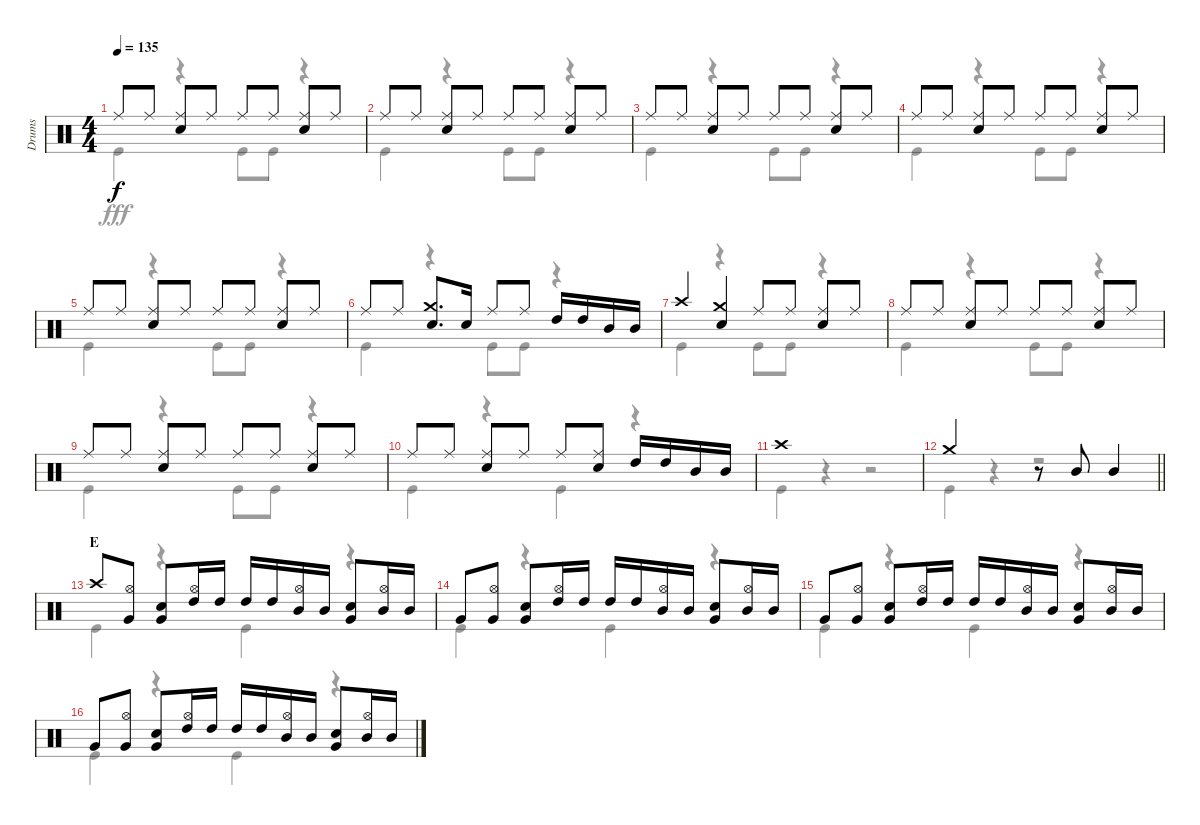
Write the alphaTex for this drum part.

\track ("Drums" "Drums") {instrument percussion}
\staff {score}
\articulation defaults
\voice
\ts (4 4)
\tempo 135
\clef neutral
\ks c "Ride (middle)".8{dy f} "Ride (middle)".8
("Ride (middle)" "Snare (hit) 2").8 "Ride (middle)".8 "Ride (middle)".8 "Ride (middle)".8 ("Ride (middle)" "Snare (hit) 2").8 "Ride (middle)".8 |
"Ride (middle)".8 "Ride (middle)".8 ("Ride (middle)" "Snare (hit) 2").8 "Ride (middle)".8 "Ride (middle)".8 "Ride (middle)".8 ("Ride (middle)" "Snare (hit) 2").8 "Ride (middle)".8 |
"Ride (middle)".8 "Ride (middle)".8 ("Ride (middle)" "Snare (hit) 2").8 "Ride (middle)".8 "Ride (middle)".8 "Ride (middle)".8 ("Ride (middle)" "Snare (hit) 2").8 "Ride (middle)".8 |
"Ride (middle)".8 "Ride (middle)".8 ("Ride (middle)" "Snare (hit) 2").8 "Ride (middle)".8 "Ride (middle)".8 "Ride (middle)".8 ("Ride (middle)" "Snare (hit) 2").8 "Ride (middle)".8 |
"Ride (middle)".8 "Ride (middle)".8 ("Ride (middle)" "Snare (hit) 2").8 "Ride (middle)".8 "Ride (middle)".8 "Ride (middle)".8 ("Ride (middle)" "Snare (hit) 2").8 "Ride (middle)".8 |
"Ride (middle)".8 "Ride (middle)".8 ("Crash medium (hit)" "Snare (hit) 2").8{d} "Snare (hit) 2".16 "Ride (middle)".8 "Ride (middle)".8 "High Tom (hit)".16 "High Tom (hit)".16 "Mid Tom (hit)".16 "Mid Tom (hit)".16 |
"Crash high (hit)".4 ("Crash medium (hit)" "Snare (hit) 2").4 "Ride (middle)".8 "Ride (middle)".8 ("Ride (middle)" "Snare (hit) 2").8 "Ride (middle)".8 |
"Ride (middle)".8 "Ride (middle)".8 ("Ride (middle)" "Snare (hit) 2").8 "Ride (middle)".8 "Ride (middle)".8 "Ride (middle)".8 ("Ride (middle)" "Snare (hit) 2").8 "Ride (middle)".8 |
"Ride (middle)".8 "Ride (middle)".8 ("Ride (middle)" "Snare (hit) 2").8 "Ride (middle)".8 "Ride (middle)".8 "Ride (middle)".8 ("Ride (middle)" "Snare (hit) 2").8 "Ride (middle)".8 |
"Ride (middle)".8 "Ride (middle)".8 ("Ride (middle)" "Snare (hit) 2").8 "Ride (middle)".8 "Ride (middle)".8 ("Ride (middle)" "Snare (hit) 2").8 "High Tom (hit)".16 "High Tom (hit)".16 "Mid Tom (hit)".16 "Mid Tom (hit)".16 |
"Crash high (hit)".1 |
\barLineRight lightlight "Crash medium (hit)".2
r.8 "Mid Tom (hit)".8 "Mid Tom (hit)".4 |
\section ("" "E")
"Crash high (hit)".8 ("Hi-Hat (open)" "Very Low Tom (hit)").8 ("Snare (hit) 2" "Very Low Tom (hit)").8 ("Hi-Hat (open)" "High Tom (hit)").16 "High Tom (hit)".16 "High Tom (hit)".16 "High Tom (hit)".16 ("Hi-Hat (open)" "Mid Tom (hit)").16 "Mid Tom (hit)".16 ("Snare (hit) 2" "Very Low Tom (hit)").8 ("Hi-Hat (open)" "Mid Tom (hit)").16 "Mid Tom (hit)".16 |
"Very Low Tom (hit)".8 ("Hi-Hat (open)" "Very Low Tom (hit)").8 ("Snare (hit) 2" "Very Low Tom (hit)").8 ("Hi-Hat (open)" "High Tom (hit)").16 "High Tom (hit)".16 "High Tom (hit)".16 "High Tom (hit)".16 ("Hi-Hat (open)" "Mid Tom (hit)").16 "Mid Tom (hit)".16 ("Snare (hit) 2" "Very Low Tom (hit)").8 ("Hi-Hat (open)" "Mid Tom (hit)").16 "Mid Tom (hit)".16 |
"Very Low Tom (hit)".8 ("Hi-Hat (open)" "Very Low Tom (hit)").8 ("Snare (hit) 2" "Very Low Tom (hit)").8 ("Hi-Hat (open)" "High Tom (hit)").16 "High Tom (hit)".16 "High Tom (hit)".16 "High Tom (hit)".16 ("Hi-Hat (open)" "Mid Tom (hit)").16 "Mid Tom (hit)".16 ("Snare (hit) 2" "Very Low Tom (hit)").8 ("Hi-Hat (open)" "Mid Tom (hit)").16 "Mid Tom (hit)".16 |
"Very Low Tom (hit)".8 ("Hi-Hat (open)" "Very Low Tom (hit)").8 ("Snare (hit) 2" "Very Low Tom (hit)").8 ("Hi-Hat (open)" "High Tom (hit)").16 "High Tom (hit)".16 "High Tom (hit)".16 "High Tom (hit)".16 ("Hi-Hat (open)" "Mid Tom (hit)").16 "Mid Tom (hit)".16 ("Snare (hit) 2" "Very Low Tom (hit)").8 ("Hi-Hat (open)" "Mid Tom (hit)").16 "Mid Tom (hit)".16
\voice
\clef neutral
\ottava regular
\simile none
\ks c "Kick (hit)".4{dy fff}
r.4 "Kick (hit)".8 "Kick (hit)".8 r.4 |
"Kick (hit)".4 r.4 "Kick (hit)".8 "Kick (hit)".8 r.4 |
"Kick (hit)".4 r.4 "Kick (hit)".8 "Kick (hit)".8 r.4 |
"Kick (hit)".4 r.4 "Kick (hit)".8 "Kick (hit)".8 r.4 |
"Kick (hit)".4 r.4 "Kick (hit)".8 "Kick (hit)".8 r.4 |
"Kick (hit)".4 r.4 "Kick (hit)".8 "Kick (hit)".8 r.4 |
"Kick (hit)".4 r.4 "Kick (hit)".8 "Kick (hit)".8 r.4 |
"Kick (hit)".4 r.4 "Kick (hit)".8 "Kick (hit)".8 r.4 |
"Kick (hit)".4 r.4 "Kick (hit)".8 "Kick (hit)".8 r.4 |
"Kick (hit)".4 r.4 "Kick (hit)".4 r.4 |
"Kick (hit)".4 r.4 r.2 |
\barLineRight lightlight "Kick (hit)".4
r.4 r.2 |
"Kick (hit)".4 r.4 "Kick (hit)".4 r.4 |
"Kick (hit)".4 r.4 "Kick (hit)".4 r.4 |
"Kick (hit)".4 r.4 "Kick (hit)".4 r.4 |
"Kick (hit)".4 r.4 "Kick (hit)".4 r.4
